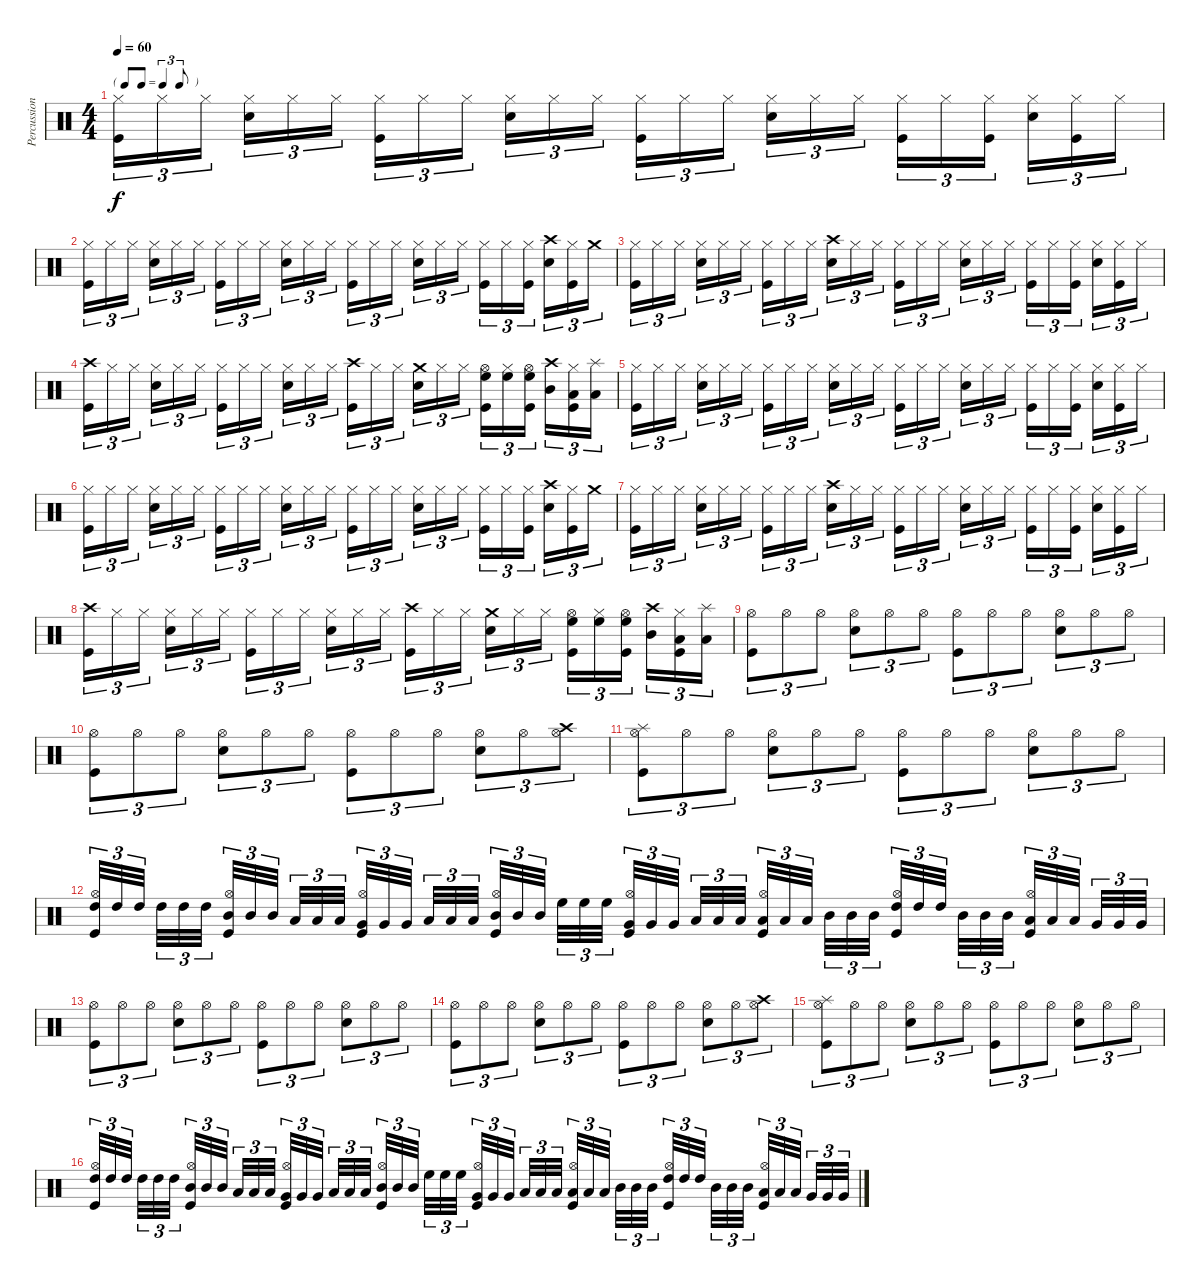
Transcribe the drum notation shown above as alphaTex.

\track ("Percussion" "Percussion") {instrument percussion}
\staff {score}
\articulation defaults
\ts (4 4)
\tf triplet8th
\tempo 60
\clef neutral
\ks c
("Hi-Hat (closed)" "Kick (hit)").16{tu (3 2) dy f} "Hi-Hat (closed)".16{tu (3 2)} "Hi-Hat (closed)".16{tu (3 2)} ("Hi-Hat (closed)" "Snare (hit) 2").16{tu (3 2)} "Hi-Hat (closed)".16{tu (3 2)} "Hi-Hat (closed)".16{tu (3 2)} ("Hi-Hat (closed)" "Kick (hit)").16{tu (3 2)} "Hi-Hat (closed)".16{tu (3 2)} "Hi-Hat (closed)".16{tu (3 2)} ("Hi-Hat (closed)" "Snare (hit) 2").16{tu (3 2)} "Hi-Hat (closed)".16{tu (3 2)} "Hi-Hat (closed)".16{tu (3 2)} ("Hi-Hat (closed)" "Kick (hit)").16{tu (3 2)} "Hi-Hat (closed)".16{tu (3 2)} "Hi-Hat (closed)".16{tu (3 2)} ("Hi-Hat (closed)" "Snare (hit) 2").16{tu (3 2)} "Hi-Hat (closed)".16{tu (3 2)} "Hi-Hat (closed)".16{tu (3 2)} ("Hi-Hat (closed)" "Kick (hit)").16{tu (3 2)} "Hi-Hat (closed)".16{tu (3 2)} ("Hi-Hat (closed)" "Kick (hit)").16{tu (3 2)} ("Hi-Hat (closed)" "Snare (hit) 2").16{tu (3 2)} ("Hi-Hat (closed)" "Kick (hit)").16{tu (3 2)} "Hi-Hat (closed)".16{tu (3 2)} |
("Hi-Hat (closed)" "Kick (hit)").16{tu (3 2)} "Hi-Hat (closed)".16{tu (3 2)} "Hi-Hat (closed)".16{tu (3 2)} ("Hi-Hat (closed)" "Snare (hit) 2").16{tu (3 2)} "Hi-Hat (closed)".16{tu (3 2)} "Hi-Hat (closed)".16{tu (3 2)} ("Hi-Hat (closed)" "Kick (hit)").16{tu (3 2)} "Hi-Hat (closed)".16{tu (3 2)} "Hi-Hat (closed)".16{tu (3 2)} ("Hi-Hat (closed)" "Snare (hit) 2").16{tu (3 2)} "Hi-Hat (closed)".16{tu (3 2)} "Hi-Hat (closed)".16{tu (3 2)} ("Hi-Hat (closed)" "Kick (hit)").16{tu (3 2)} "Hi-Hat (closed)".16{tu (3 2)} "Hi-Hat (closed)".16{tu (3 2)} ("Hi-Hat (closed)" "Snare (hit) 2").16{tu (3 2)} "Hi-Hat (closed)".16{tu (3 2)} "Hi-Hat (closed)".16{tu (3 2)} ("Hi-Hat (closed)" "Kick (hit)").16{tu (3 2)} "Hi-Hat (closed)".16{tu (3 2)} ("Hi-Hat (closed)" "Kick (hit)").16{tu (3 2)} ("Crash high (hit)" "Snare (hit) 2").16{tu (3 2)} ("Hi-Hat (closed)" "Kick (hit)").16{tu (3 2)} "Crash medium (hit)".16{tu (3 2)} |
("Hi-Hat (closed)" "Kick (hit)").16{tu (3 2)} "Hi-Hat (closed)".16{tu (3 2)} "Hi-Hat (closed)".16{tu (3 2)} ("Hi-Hat (closed)" "Snare (hit) 2").16{tu (3 2)} "Hi-Hat (closed)".16{tu (3 2)} "Hi-Hat (closed)".16{tu (3 2)} ("Hi-Hat (closed)" "Kick (hit)").16{tu (3 2)} "Hi-Hat (closed)".16{tu (3 2)} "Hi-Hat (closed)".16{tu (3 2)} ("Crash high (hit)" "Snare (hit) 2").16{tu (3 2)} "Hi-Hat (closed)".16{tu (3 2)} "Hi-Hat (closed)".16{tu (3 2)} ("Hi-Hat (closed)" "Kick (hit)").16{tu (3 2)} "Hi-Hat (closed)".16{tu (3 2)} "Hi-Hat (closed)".16{tu (3 2)} ("Hi-Hat (closed)" "Snare (hit) 2").16{tu (3 2)} "Hi-Hat (closed)".16{tu (3 2)} "Hi-Hat (closed)".16{tu (3 2)} ("Hi-Hat (closed)" "Kick (hit)").16{tu (3 2)} "Hi-Hat (closed)".16{tu (3 2)} ("Hi-Hat (closed)" "Kick (hit)").16{tu (3 2)} ("Hi-Hat (closed)" "Snare (hit) 2").16{tu (3 2)} ("Hi-Hat (closed)" "Kick (hit)").16{tu (3 2)} "Hi-Hat (closed)".16{tu (3 2)} |
("Crash high (hit)" "Kick (hit)").16{tu (3 2)} "Hi-Hat (closed)".16{tu (3 2)} "Hi-Hat (closed)".16{tu (3 2)} ("Hi-Hat (closed)" "Snare (hit) 2").16{tu (3 2)} "Hi-Hat (closed)".16{tu (3 2)} "Hi-Hat (closed)".16{tu (3 2)} ("Hi-Hat (closed)" "Kick (hit)").16{tu (3 2)} "Hi-Hat (closed)".16{tu (3 2)} "Hi-Hat (closed)".16{tu (3 2)} ("Hi-Hat (closed)" "Snare (hit) 2").16{tu (3 2)} "Hi-Hat (closed)".16{tu (3 2)} "Hi-Hat (closed)".16{tu (3 2)} ("Crash high (hit)" "Kick (hit)").16{tu (3 2)} "Hi-Hat (closed)".16{tu (3 2)} "Hi-Hat (closed)".16{tu (3 2)} ("Crash medium (hit)" "Snare (hit) 2").16{tu (3 2)} "Hi-Hat (closed)".16{tu (3 2)} "Hi-Hat (closed)".16{tu (3 2)} ("Hi-Hat (open)" "High Floor Tom (hit)" "Kick (hit)").16{tu (3 2)} ("Hi-Hat (closed)" "High Floor Tom (hit)").16{tu (3 2)} ("Hi-Hat (open)" "High Floor Tom (hit)" "Kick (hit)").16{tu (3 2)} ("Crash high (hit)" "Mid Tom (hit)").16{tu (3 2)} ("Hi-Hat (closed)" "Low Tom (hit)" "Kick (hit)").16{tu (3 2)} ("Splash (hit)" "Low Floor Tom (hit)").16{tu (3 2)} |
("Hi-Hat (closed)" "Kick (hit)").16{tu (3 2)} "Hi-Hat (closed)".16{tu (3 2)} "Hi-Hat (closed)".16{tu (3 2)} ("Hi-Hat (closed)" "Snare (hit) 2").16{tu (3 2)} "Hi-Hat (closed)".16{tu (3 2)} "Hi-Hat (closed)".16{tu (3 2)} ("Hi-Hat (closed)" "Kick (hit)").16{tu (3 2)} "Hi-Hat (closed)".16{tu (3 2)} "Hi-Hat (closed)".16{tu (3 2)} ("Hi-Hat (closed)" "Snare (hit) 2").16{tu (3 2)} "Hi-Hat (closed)".16{tu (3 2)} "Hi-Hat (closed)".16{tu (3 2)} ("Hi-Hat (closed)" "Kick (hit)").16{tu (3 2)} "Hi-Hat (closed)".16{tu (3 2)} "Hi-Hat (closed)".16{tu (3 2)} ("Hi-Hat (closed)" "Snare (hit) 2").16{tu (3 2)} "Hi-Hat (closed)".16{tu (3 2)} "Hi-Hat (closed)".16{tu (3 2)} ("Hi-Hat (closed)" "Kick (hit)").16{tu (3 2)} "Hi-Hat (closed)".16{tu (3 2)} ("Hi-Hat (closed)" "Kick (hit)").16{tu (3 2)} ("Hi-Hat (closed)" "Snare (hit) 2").16{tu (3 2)} ("Hi-Hat (closed)" "Kick (hit)").16{tu (3 2)} "Hi-Hat (closed)".16{tu (3 2)} |
("Hi-Hat (closed)" "Kick (hit)").16{tu (3 2)} "Hi-Hat (closed)".16{tu (3 2)} "Hi-Hat (closed)".16{tu (3 2)} ("Hi-Hat (closed)" "Snare (hit) 2").16{tu (3 2)} "Hi-Hat (closed)".16{tu (3 2)} "Hi-Hat (closed)".16{tu (3 2)} ("Hi-Hat (closed)" "Kick (hit)").16{tu (3 2)} "Hi-Hat (closed)".16{tu (3 2)} "Hi-Hat (closed)".16{tu (3 2)} ("Hi-Hat (closed)" "Snare (hit) 2").16{tu (3 2)} "Hi-Hat (closed)".16{tu (3 2)} "Hi-Hat (closed)".16{tu (3 2)} ("Hi-Hat (closed)" "Kick (hit)").16{tu (3 2)} "Hi-Hat (closed)".16{tu (3 2)} "Hi-Hat (closed)".16{tu (3 2)} ("Hi-Hat (closed)" "Snare (hit) 2").16{tu (3 2)} "Hi-Hat (closed)".16{tu (3 2)} "Hi-Hat (closed)".16{tu (3 2)} ("Hi-Hat (closed)" "Kick (hit)").16{tu (3 2)} "Hi-Hat (closed)".16{tu (3 2)} ("Hi-Hat (closed)" "Kick (hit)").16{tu (3 2)} ("Crash high (hit)" "Snare (hit) 2").16{tu (3 2)} ("Hi-Hat (closed)" "Kick (hit)").16{tu (3 2)} "Crash medium (hit)".16{tu (3 2)} |
("Hi-Hat (closed)" "Kick (hit)").16{tu (3 2)} "Hi-Hat (closed)".16{tu (3 2)} "Hi-Hat (closed)".16{tu (3 2)} ("Hi-Hat (closed)" "Snare (hit) 2").16{tu (3 2)} "Hi-Hat (closed)".16{tu (3 2)} "Hi-Hat (closed)".16{tu (3 2)} ("Hi-Hat (closed)" "Kick (hit)").16{tu (3 2)} "Hi-Hat (closed)".16{tu (3 2)} "Hi-Hat (closed)".16{tu (3 2)} ("Crash high (hit)" "Snare (hit) 2").16{tu (3 2)} "Hi-Hat (closed)".16{tu (3 2)} "Hi-Hat (closed)".16{tu (3 2)} ("Hi-Hat (closed)" "Kick (hit)").16{tu (3 2)} "Hi-Hat (closed)".16{tu (3 2)} "Hi-Hat (closed)".16{tu (3 2)} ("Hi-Hat (closed)" "Snare (hit) 2").16{tu (3 2)} "Hi-Hat (closed)".16{tu (3 2)} "Hi-Hat (closed)".16{tu (3 2)} ("Hi-Hat (closed)" "Kick (hit)").16{tu (3 2)} "Hi-Hat (closed)".16{tu (3 2)} ("Hi-Hat (closed)" "Kick (hit)").16{tu (3 2)} ("Hi-Hat (closed)" "Snare (hit) 2").16{tu (3 2)} ("Hi-Hat (closed)" "Kick (hit)").16{tu (3 2)} "Hi-Hat (closed)".16{tu (3 2)} |
("Crash high (hit)" "Kick (hit)").16{tu (3 2)} "Hi-Hat (closed)".16{tu (3 2)} "Hi-Hat (closed)".16{tu (3 2)} ("Hi-Hat (closed)" "Snare (hit) 2").16{tu (3 2)} "Hi-Hat (closed)".16{tu (3 2)} "Hi-Hat (closed)".16{tu (3 2)} ("Hi-Hat (closed)" "Kick (hit)").16{tu (3 2)} "Hi-Hat (closed)".16{tu (3 2)} "Hi-Hat (closed)".16{tu (3 2)} ("Hi-Hat (closed)" "Snare (hit) 2").16{tu (3 2)} "Hi-Hat (closed)".16{tu (3 2)} "Hi-Hat (closed)".16{tu (3 2)} ("Crash high (hit)" "Kick (hit)").16{tu (3 2)} "Hi-Hat (closed)".16{tu (3 2)} "Hi-Hat (closed)".16{tu (3 2)} ("Crash medium (hit)" "Snare (hit) 2").16{tu (3 2)} "Hi-Hat (closed)".16{tu (3 2)} "Hi-Hat (closed)".16{tu (3 2)} ("Hi-Hat (open)" "High Floor Tom (hit)" "Kick (hit)").16{tu (3 2)} ("Hi-Hat (closed)" "High Floor Tom (hit)").16{tu (3 2)} ("Hi-Hat (open)" "High Floor Tom (hit)" "Kick (hit)").16{tu (3 2)} ("Crash high (hit)" "Mid Tom (hit)").16{tu (3 2)} ("Hi-Hat (closed)" "Low Tom (hit)" "Kick (hit)").16{tu (3 2)} ("Splash (hit)" "Low Floor Tom (hit)").16{tu (3 2)} |
("Hi-Hat (open)" "Kick (hit)").8{tu (3 2)} "Hi-Hat (open)".8{tu (3 2)} "Hi-Hat (open)".8{tu (3 2)} ("Hi-Hat (open)" "Snare (hit) 2").8{tu (3 2)} "Hi-Hat (open)".8{tu (3 2)} "Hi-Hat (open)".8{tu (3 2)} ("Hi-Hat (open)" "Kick (hit)").8{tu (3 2)} "Hi-Hat (open)".8{tu (3 2)} "Hi-Hat (open)".8{tu (3 2)} ("Hi-Hat (open)" "Snare (hit) 2").8{tu (3 2)} "Hi-Hat (open)".8{tu (3 2)} "Hi-Hat (open)".8{tu (3 2)} |
("Hi-Hat (open)" "Kick (hit)").8{tu (3 2)} "Hi-Hat (open)".8{tu (3 2)} "Hi-Hat (open)".8{tu (3 2)} ("Hi-Hat (open)" "Snare (hit) 2").8{tu (3 2)} "Hi-Hat (open)".8{tu (3 2)} "Hi-Hat (open)".8{tu (3 2)} ("Hi-Hat (open)" "Kick (hit)").8{tu (3 2)} "Hi-Hat (open)".8{tu (3 2)} "Hi-Hat (open)".8{tu (3 2)} ("Hi-Hat (open)" "Snare (hit) 2").8{tu (3 2)} "Hi-Hat (open)".8{tu (3 2)} ("Crash high (hit)" "Hi-Hat (open)").8{tu (3 2)} |
("Splash (hit)" "Hi-Hat (open)" "Kick (hit)").8{tu (3 2)} "Hi-Hat (open)".8{tu (3 2)} "Hi-Hat (open)".8{tu (3 2)} ("Hi-Hat (open)" "Snare (hit) 2").8{tu (3 2)} "Hi-Hat (open)".8{tu (3 2)} "Hi-Hat (open)".8{tu (3 2)} ("Hi-Hat (open)" "Kick (hit)").8{tu (3 2)} "Hi-Hat (open)".8{tu (3 2)} "Hi-Hat (open)".8{tu (3 2)} ("Hi-Hat (open)" "Snare (hit) 2").8{tu (3 2)} "Hi-Hat (open)".8{tu (3 2)} "Hi-Hat (open)".8{tu (3 2)} |
("Hi-Hat (open)" "High Tom (hit)" "Kick (hit)").32{tu (3 2)} "High Tom (hit)".32{tu (3 2)} "High Tom (hit)".32{tu (3 2)} "High Tom (hit)".32{tu (3 2)} "High Tom (hit)".32{tu (3 2)} "High Tom (hit)".32{tu (3 2)} ("Hi-Hat (open)" "Mid Tom (hit)" "Kick (hit)").32{tu (3 2)} "Mid Tom (hit)".32{tu (3 2)} "Mid Tom (hit)".32{tu (3 2)} "Low Tom (hit)".32{tu (3 2)} "Low Tom (hit)".32{tu (3 2)} "Low Tom (hit)".32{tu (3 2)} ("Hi-Hat (open)" "Very Low Tom (hit)" "Kick (hit)").32{tu (3 2)} "Very Low Tom (hit)".32{tu (3 2)} "Very Low Tom (hit)".32{tu (3 2)} "Low Tom (hit)".32{tu (3 2)} "Low Tom (hit)".32{tu (3 2)} "Low Tom (hit)".32{tu (3 2)} ("Hi-Hat (open)" "Mid Tom (hit)" "Kick (hit)").32{tu (3 2)} "Mid Tom (hit)".32{tu (3 2)} "Mid Tom (hit)".32{tu (3 2)} "High Floor Tom (hit)".32{tu (3 2)} "High Floor Tom (hit)".32{tu (3 2)} "High Floor Tom (hit)".32{tu (3 2)} ("Hi-Hat (open)" "Very Low Tom (hit)" "Kick (hit)").32{tu (3 2)} "Very Low Tom (hit)".32{tu (3 2)} "Very Low Tom (hit)".32{tu (3 2)} "Low Floor Tom (hit)".32{tu (3 2)} "Low Floor Tom (hit)".32{tu (3 2)} "Low Floor Tom (hit)".32{tu (3 2)} ("Hi-Hat (open)" "Low Tom (hit)" "Kick (hit)").32{tu (3 2)} "Low Tom (hit)".32{tu (3 2)} "Low Tom (hit)".32{tu (3 2)} "Mid Tom (hit)".32{tu (3 2)} "Mid Tom (hit)".32{tu (3 2)} "Mid Tom (hit)".32{tu (3 2)} ("Hi-Hat (open)" "High Tom (hit)" "Kick (hit)").32{tu (3 2)} "High Tom (hit)".32{tu (3 2)} "High Tom (hit)".32{tu (3 2)} "Mid Tom (hit)".32{tu (3 2)} "Mid Tom (hit)".32{tu (3 2)} "Mid Tom (hit)".32{tu (3 2)} ("Hi-Hat (open)" "Low Tom (hit)" "Kick (hit)").32{tu (3 2)} "Low Tom (hit)".32{tu (3 2)} "Low Tom (hit)".32{tu (3 2)} "Very Low Tom (hit)".32{tu (3 2)} "Very Low Tom (hit)".32{tu (3 2)} "Very Low Tom (hit)".32{tu (3 2)} |
("Hi-Hat (open)" "Kick (hit)").8{tu (3 2)} "Hi-Hat (open)".8{tu (3 2)} "Hi-Hat (open)".8{tu (3 2)} ("Hi-Hat (open)" "Snare (hit) 2").8{tu (3 2)} "Hi-Hat (open)".8{tu (3 2)} "Hi-Hat (open)".8{tu (3 2)} ("Hi-Hat (open)" "Kick (hit)").8{tu (3 2)} "Hi-Hat (open)".8{tu (3 2)} "Hi-Hat (open)".8{tu (3 2)} ("Hi-Hat (open)" "Snare (hit) 2").8{tu (3 2)} "Hi-Hat (open)".8{tu (3 2)} "Hi-Hat (open)".8{tu (3 2)} |
("Hi-Hat (open)" "Kick (hit)").8{tu (3 2)} "Hi-Hat (open)".8{tu (3 2)} "Hi-Hat (open)".8{tu (3 2)} ("Hi-Hat (open)" "Snare (hit) 2").8{tu (3 2)} "Hi-Hat (open)".8{tu (3 2)} "Hi-Hat (open)".8{tu (3 2)} ("Hi-Hat (open)" "Kick (hit)").8{tu (3 2)} "Hi-Hat (open)".8{tu (3 2)} "Hi-Hat (open)".8{tu (3 2)} ("Hi-Hat (open)" "Snare (hit) 2").8{tu (3 2)} "Hi-Hat (open)".8{tu (3 2)} ("Crash high (hit)" "Hi-Hat (open)").8{tu (3 2)} |
("Splash (hit)" "Hi-Hat (open)" "Kick (hit)").8{tu (3 2)} "Hi-Hat (open)".8{tu (3 2)} "Hi-Hat (open)".8{tu (3 2)} ("Hi-Hat (open)" "Snare (hit) 2").8{tu (3 2)} "Hi-Hat (open)".8{tu (3 2)} "Hi-Hat (open)".8{tu (3 2)} ("Hi-Hat (open)" "Kick (hit)").8{tu (3 2)} "Hi-Hat (open)".8{tu (3 2)} "Hi-Hat (open)".8{tu (3 2)} ("Hi-Hat (open)" "Snare (hit) 2").8{tu (3 2)} "Hi-Hat (open)".8{tu (3 2)} "Hi-Hat (open)".8{tu (3 2)} |
("Hi-Hat (open)" "High Tom (hit)" "Kick (hit)").32{tu (3 2)} "High Tom (hit)".32{tu (3 2)} "High Tom (hit)".32{tu (3 2)} "High Tom (hit)".32{tu (3 2)} "High Tom (hit)".32{tu (3 2)} "High Tom (hit)".32{tu (3 2)} ("Hi-Hat (open)" "Mid Tom (hit)" "Kick (hit)").32{tu (3 2)} "Mid Tom (hit)".32{tu (3 2)} "Mid Tom (hit)".32{tu (3 2)} "Low Tom (hit)".32{tu (3 2)} "Low Tom (hit)".32{tu (3 2)} "Low Tom (hit)".32{tu (3 2)} ("Hi-Hat (open)" "Very Low Tom (hit)" "Kick (hit)").32{tu (3 2)} "Very Low Tom (hit)".32{tu (3 2)} "Very Low Tom (hit)".32{tu (3 2)} "Low Tom (hit)".32{tu (3 2)} "Low Tom (hit)".32{tu (3 2)} "Low Tom (hit)".32{tu (3 2)} ("Hi-Hat (open)" "Mid Tom (hit)" "Kick (hit)").32{tu (3 2)} "Mid Tom (hit)".32{tu (3 2)} "Mid Tom (hit)".32{tu (3 2)} "High Floor Tom (hit)".32{tu (3 2)} "High Floor Tom (hit)".32{tu (3 2)} "High Floor Tom (hit)".32{tu (3 2)} ("Hi-Hat (open)" "Very Low Tom (hit)" "Kick (hit)").32{tu (3 2)} "Very Low Tom (hit)".32{tu (3 2)} "Very Low Tom (hit)".32{tu (3 2)} "Low Floor Tom (hit)".32{tu (3 2)} "Low Floor Tom (hit)".32{tu (3 2)} "Low Floor Tom (hit)".32{tu (3 2)} ("Hi-Hat (open)" "Low Tom (hit)" "Kick (hit)").32{tu (3 2)} "Low Tom (hit)".32{tu (3 2)} "Low Tom (hit)".32{tu (3 2)} "Mid Tom (hit)".32{tu (3 2)} "Mid Tom (hit)".32{tu (3 2)} "Mid Tom (hit)".32{tu (3 2)} ("Hi-Hat (open)" "High Tom (hit)" "Kick (hit)").32{tu (3 2)} "High Tom (hit)".32{tu (3 2)} "High Tom (hit)".32{tu (3 2)} "Mid Tom (hit)".32{tu (3 2)} "Mid Tom (hit)".32{tu (3 2)} "Mid Tom (hit)".32{tu (3 2)} ("Hi-Hat (open)" "Low Tom (hit)" "Kick (hit)").32{tu (3 2)} "Low Tom (hit)".32{tu (3 2)} "Low Tom (hit)".32{tu (3 2)} "Very Low Tom (hit)".32{tu (3 2)} "Very Low Tom (hit)".32{tu (3 2)} "Very Low Tom (hit)".32{tu (3 2)}
